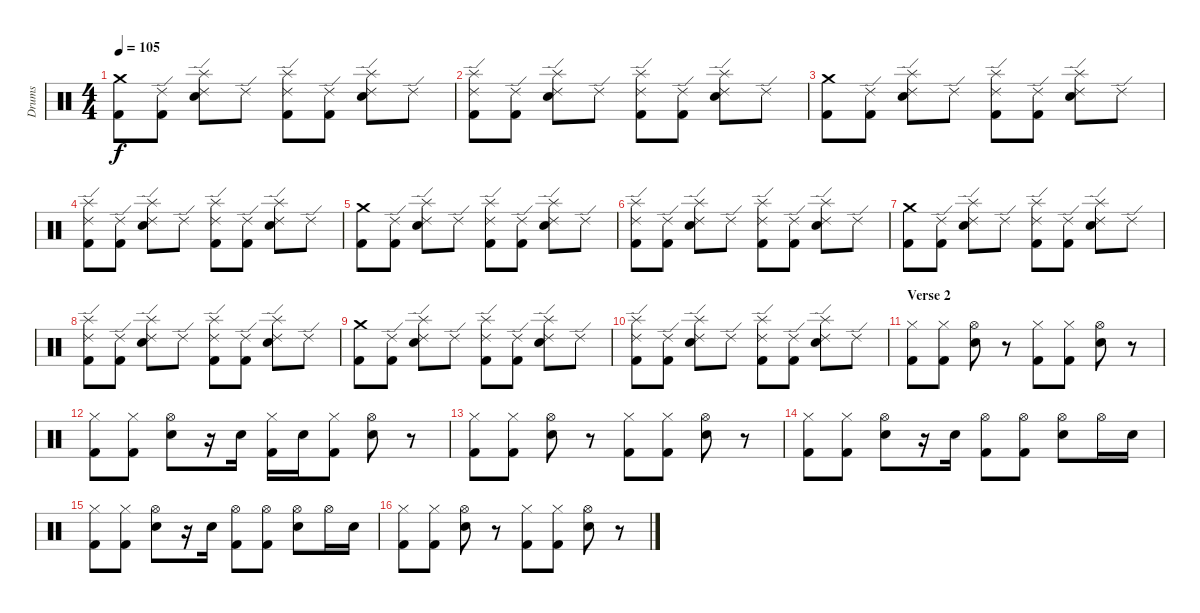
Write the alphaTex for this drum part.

\track ("Drums" "Drums") {instrument percussion}
\staff {score}
\articulation defaults
\ts (4 4)
\tempo 105
\clef neutral
\ks c
("Crash medium (hit)" "Kick (hit) 2").8{dy f} ("Ride (edge) 2" "Kick (hit) 2").8 ("Ride (edge) 2" "Splash (hit)" "Electric Snare (hit)").8 "Ride (edge) 2".8 ("Ride (edge) 2" "Splash (hit)" "Kick (hit) 2").8 ("Ride (edge) 2" "Kick (hit) 2").8 ("Ride (edge) 2" "Splash (hit)" "Electric Snare (hit)").8 "Ride (edge) 2".8 |
("Ride (edge) 2" "Splash (hit)" "Kick (hit) 2").8 ("Ride (edge) 2" "Kick (hit) 2").8 ("Ride (edge) 2" "Splash (hit)" "Electric Snare (hit)").8 "Ride (edge) 2".8 ("Ride (edge) 2" "Splash (hit)" "Kick (hit) 2").8 ("Ride (edge) 2" "Kick (hit) 2").8 ("Ride (edge) 2" "Splash (hit)" "Electric Snare (hit)").8 "Ride (edge) 2".8 |
("Crash medium (hit)" "Kick (hit) 2").8 ("Ride (edge) 2" "Kick (hit) 2").8 ("Ride (edge) 2" "Splash (hit)" "Electric Snare (hit)").8 "Ride (edge) 2".8 ("Ride (edge) 2" "Splash (hit)" "Kick (hit) 2").8 ("Ride (edge) 2" "Kick (hit) 2").8 ("Ride (edge) 2" "Splash (hit)" "Electric Snare (hit)").8 "Ride (edge) 2".8 |
("Ride (edge) 2" "Splash (hit)" "Kick (hit) 2").8 ("Ride (edge) 2" "Kick (hit) 2").8 ("Ride (edge) 2" "Splash (hit)" "Electric Snare (hit)").8 "Ride (edge) 2".8 ("Ride (edge) 2" "Splash (hit)" "Kick (hit) 2").8 ("Ride (edge) 2" "Kick (hit) 2").8 ("Ride (edge) 2" "Splash (hit)" "Electric Snare (hit)").8 "Ride (edge) 2".8 |
("Crash medium (hit)" "Kick (hit) 2").8 ("Ride (edge) 2" "Kick (hit) 2").8 ("Ride (edge) 2" "Splash (hit)" "Electric Snare (hit)").8 "Ride (edge) 2".8 ("Ride (edge) 2" "Splash (hit)" "Kick (hit) 2").8 ("Ride (edge) 2" "Kick (hit) 2").8 ("Ride (edge) 2" "Splash (hit)" "Electric Snare (hit)").8 "Ride (edge) 2".8 |
("Ride (edge) 2" "Splash (hit)" "Kick (hit) 2").8 ("Ride (edge) 2" "Kick (hit) 2").8 ("Ride (edge) 2" "Splash (hit)" "Electric Snare (hit)").8 "Ride (edge) 2".8 ("Ride (edge) 2" "Splash (hit)" "Kick (hit) 2").8 ("Ride (edge) 2" "Kick (hit) 2").8 ("Ride (edge) 2" "Splash (hit)" "Electric Snare (hit)").8 "Ride (edge) 2".8 |
("Crash medium (hit)" "Kick (hit) 2").8 ("Ride (edge) 2" "Kick (hit) 2").8 ("Ride (edge) 2" "Splash (hit)" "Electric Snare (hit)").8 "Ride (edge) 2".8 ("Ride (edge) 2" "Splash (hit)" "Kick (hit) 2").8 ("Ride (edge) 2" "Kick (hit) 2").8 ("Ride (edge) 2" "Splash (hit)" "Electric Snare (hit)").8 "Ride (edge) 2".8 |
("Ride (edge) 2" "Splash (hit)" "Kick (hit) 2").8 ("Ride (edge) 2" "Kick (hit) 2").8 ("Ride (edge) 2" "Splash (hit)" "Electric Snare (hit)").8 "Ride (edge) 2".8 ("Ride (edge) 2" "Splash (hit)" "Kick (hit) 2").8 ("Ride (edge) 2" "Kick (hit) 2").8 ("Ride (edge) 2" "Splash (hit)" "Electric Snare (hit)").8 "Ride (edge) 2".8 |
("Crash medium (hit)" "Kick (hit) 2").8 ("Ride (edge) 2" "Kick (hit) 2").8 ("Ride (edge) 2" "Splash (hit)" "Electric Snare (hit)").8 "Ride (edge) 2".8 ("Ride (edge) 2" "Splash (hit)" "Kick (hit) 2").8 ("Ride (edge) 2" "Kick (hit) 2").8 ("Ride (edge) 2" "Splash (hit)" "Electric Snare (hit)").8 "Ride (edge) 2".8 |
("Ride (edge) 2" "Splash (hit)" "Kick (hit) 2").8 ("Ride (edge) 2" "Kick (hit) 2").8 ("Ride (edge) 2" "Splash (hit)" "Electric Snare (hit)").8 "Ride (edge) 2".8 ("Ride (edge) 2" "Splash (hit)" "Kick (hit) 2").8 ("Ride (edge) 2" "Kick (hit) 2").8 ("Ride (edge) 2" "Splash (hit)" "Electric Snare (hit)").8 "Ride (edge) 2".8 |
\section ("" "Verse 2")
("Hi-Hat (closed)" "Kick (hit) 2").8 ("Hi-Hat (closed)" "Kick (hit) 2").8 ("Hi-Hat (open)" "Electric Snare (hit)").8 r.8 ("Hi-Hat (closed)" "Kick (hit) 2").8 ("Hi-Hat (closed)" "Kick (hit) 2").8 ("Hi-Hat (open)" "Electric Snare (hit)").8 r.8 |
("Hi-Hat (closed)" "Kick (hit) 2").8 ("Hi-Hat (closed)" "Kick (hit) 2").8 ("Hi-Hat (open)" "Electric Snare (hit)").8 r.16 "Electric Snare (hit)".16 ("Hi-Hat (closed)" "Kick (hit) 2").16 "Electric Snare (hit)".16 ("Hi-Hat (closed)" "Kick (hit) 2").8 ("Hi-Hat (open)" "Electric Snare (hit)").8 r.8 |
("Hi-Hat (closed)" "Kick (hit) 2").8 ("Hi-Hat (closed)" "Kick (hit) 2").8 ("Hi-Hat (open)" "Electric Snare (hit)").8 r.8 ("Hi-Hat (closed)" "Kick (hit) 2").8 ("Hi-Hat (closed)" "Kick (hit) 2").8 ("Hi-Hat (open)" "Electric Snare (hit)").8 r.8 |
("Hi-Hat (closed)" "Kick (hit) 2").8 ("Hi-Hat (closed)" "Kick (hit) 2").8 ("Hi-Hat (open)" "Electric Snare (hit)").8 r.16 "Electric Snare (hit)".16 ("Hi-Hat (open)" "Kick (hit) 2").8 ("Hi-Hat (open)" "Kick (hit) 2").8 ("Hi-Hat (open)" "Electric Snare (hit)").8 "Hi-Hat (open)".16 "Electric Snare (hit)".16 |
("Hi-Hat (closed)" "Kick (hit) 2").8 ("Hi-Hat (closed)" "Kick (hit) 2").8 ("Hi-Hat (open)" "Electric Snare (hit)").8 r.16 "Electric Snare (hit)".16 ("Hi-Hat (open)" "Kick (hit) 2").8 ("Hi-Hat (open)" "Kick (hit) 2").8 ("Hi-Hat (open)" "Electric Snare (hit)").8 "Hi-Hat (open)".16 "Electric Snare (hit)".16 |
("Hi-Hat (closed)" "Kick (hit) 2").8 ("Hi-Hat (closed)" "Kick (hit) 2").8 ("Hi-Hat (open)" "Electric Snare (hit)").8 r.8 ("Hi-Hat (closed)" "Kick (hit) 2").8 ("Hi-Hat (closed)" "Kick (hit) 2").8 ("Hi-Hat (open)" "Electric Snare (hit)").8 r.8
